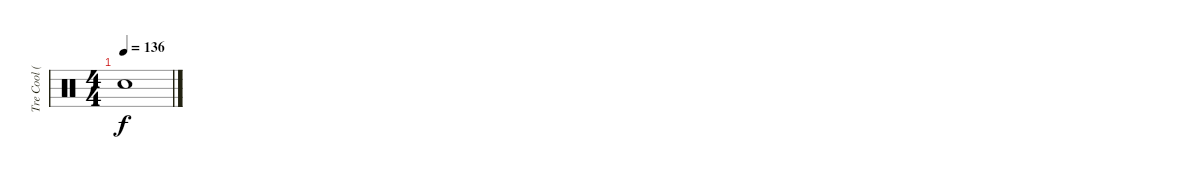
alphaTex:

\track ("Tre Cool (Drums)" "Tre Cool (") {instrument percussion}
\staff {score}
\articulation defaults
\ts (4 4)
\tempo 136
\clef neutral
\ks c "Snare (hit)"{t}.1{dy f}
